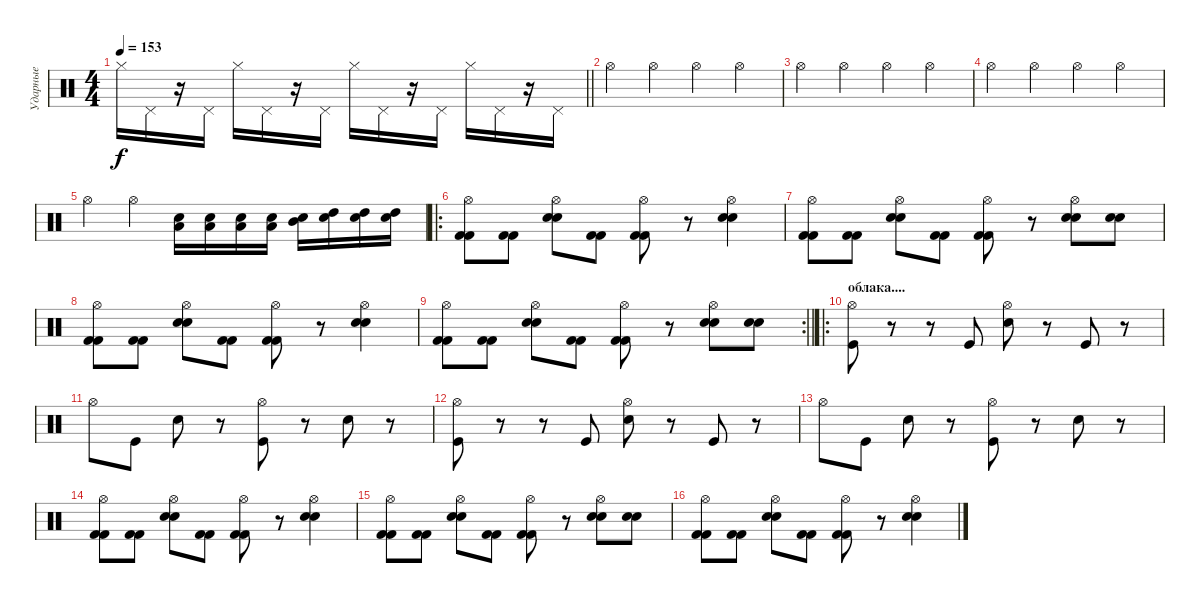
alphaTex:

\track ("Ударные" "Ударные") {instrument percussion}
\staff {score}
\articulation defaults
\ts (4 4)
\tempo 153
\clef neutral
\barLineRight lightlight
\ks c "Hi-Hat (closed)".16{dy f volume 13} "Pedal Hi-Hat (hit)".16
r.16 "Pedal Hi-Hat (hit)".16 "Hi-Hat (closed)".16 "Pedal Hi-Hat (hit)".16 r.16 "Pedal Hi-Hat (hit)".16 "Hi-Hat (closed)".16 "Pedal Hi-Hat (hit)".16 r.16 "Pedal Hi-Hat (hit)".16 "Hi-Hat (closed)".16 "Pedal Hi-Hat (hit)".16 r.16 "Pedal Hi-Hat (hit)".16 |
"Hi-Hat (open)".4{volume 9} "Hi-Hat (open)".4{volume 16} "Hi-Hat (open)".4 "Hi-Hat (open)".4 |
"Hi-Hat (open)".4 "Hi-Hat (open)".4 "Hi-Hat (open)".4 "Hi-Hat (open)".4 |
"Hi-Hat (open)".4 "Hi-Hat (open)".4 "Hi-Hat (open)".4 "Hi-Hat (open)".4 |
"Hi-Hat (open)".4 "Hi-Hat (open)".4 ("Low Tom (hit)" "Snare (hit) 2").16 ("Low Tom (hit)" "Snare (hit) 2").16 ("Low Tom (hit)" "Snare (hit) 2").16 ("Low Tom (hit)" "Snare (hit) 2").16 ("Mid Tom (hit)" "Snare (hit) 2").16 ("High Tom (hit)" "Snare (hit) 2").16 ("High Tom (hit)" "Snare (hit) 2").16 ("High Tom (hit)" "Snare (hit) 2").16 |
\ro
("Kick (hit) 2" "Kick (hit) 2" "Hi-Hat (open)").8 ("Kick (hit) 2" "Kick (hit) 2").8 ("Electric Snare (hit)" "Electric Snare (hit)" "Hi-Hat (open)").8 ("Kick (hit) 2" "Kick (hit) 2").8 ("Kick (hit) 2" "Kick (hit) 2" "Hi-Hat (open)").8 r.8 ("Electric Snare (hit)" "Electric Snare (hit)" "Hi-Hat (open)").4 |
("Kick (hit) 2" "Kick (hit) 2" "Hi-Hat (open)").8 ("Kick (hit) 2" "Kick (hit) 2").8 ("Electric Snare (hit)" "Electric Snare (hit)" "Hi-Hat (open)").8 ("Kick (hit) 2" "Kick (hit) 2").8 ("Kick (hit) 2" "Kick (hit) 2" "Hi-Hat (open)").8 r.8 ("Electric Snare (hit)" "Electric Snare (hit)" "Hi-Hat (open)").8 ("Electric Snare (hit)" "Electric Snare (hit)").8 |
("Kick (hit) 2" "Kick (hit) 2" "Hi-Hat (open)").8 ("Kick (hit) 2" "Kick (hit) 2").8 ("Electric Snare (hit)" "Electric Snare (hit)" "Hi-Hat (open)").8 ("Kick (hit) 2" "Kick (hit) 2").8 ("Kick (hit) 2" "Kick (hit) 2" "Hi-Hat (open)").8 r.8 ("Electric Snare (hit)" "Electric Snare (hit)" "Hi-Hat (open)").4 |
\rc 2
\barLineRight lightlight
("Kick (hit) 2" "Kick (hit) 2" "Hi-Hat (open)").8 ("Kick (hit) 2" "Kick (hit) 2").8 ("Electric Snare (hit)" "Electric Snare (hit)" "Hi-Hat (open)").8 ("Kick (hit) 2" "Kick (hit) 2").8 ("Kick (hit) 2" "Kick (hit) 2" "Hi-Hat (open)").8 r.8 ("Electric Snare (hit)" "Electric Snare (hit)" "Hi-Hat (open)").8 ("Electric Snare (hit)" "Electric Snare (hit)").8 |
\ro
\section ("" "облака....")
("Hi-Hat (open)" "Kick (hit)").8 r.8 r.8 "Kick (hit)".8 ("Hi-Hat (open)" "Electric Snare (hit)").8 r.8 "Kick (hit)".8 r.8 |
"Hi-Hat (open)".8 "Kick (hit)".8 "Electric Snare (hit)".8 r.8 ("Hi-Hat (open)" "Kick (hit)").8 r.8 "Electric Snare (hit)".8 r.8 |
("Hi-Hat (open)" "Kick (hit)").8 r.8 r.8 "Kick (hit)".8 ("Hi-Hat (open)" "Electric Snare (hit)").8 r.8 "Kick (hit)".8 r.8 |
"Hi-Hat (open)".8 "Kick (hit)".8 "Electric Snare (hit)".8 r.8 ("Hi-Hat (open)" "Kick (hit)").8 r.8 "Electric Snare (hit)".8 r.8 |
("Kick (hit) 2" "Kick (hit) 2" "Hi-Hat (open)").8 ("Kick (hit) 2" "Kick (hit) 2").8 ("Electric Snare (hit)" "Electric Snare (hit)" "Hi-Hat (open)").8 ("Kick (hit) 2" "Kick (hit) 2").8 ("Kick (hit) 2" "Kick (hit) 2" "Hi-Hat (open)").8 r.8 ("Electric Snare (hit)" "Electric Snare (hit)" "Hi-Hat (open)").4 |
("Kick (hit) 2" "Kick (hit) 2" "Hi-Hat (open)").8 ("Kick (hit) 2" "Kick (hit) 2").8 ("Electric Snare (hit)" "Electric Snare (hit)" "Hi-Hat (open)").8 ("Kick (hit) 2" "Kick (hit) 2").8 ("Kick (hit) 2" "Kick (hit) 2" "Hi-Hat (open)").8 r.8 ("Electric Snare (hit)" "Electric Snare (hit)" "Hi-Hat (open)").8 ("Electric Snare (hit)" "Electric Snare (hit)").8 |
("Kick (hit) 2" "Kick (hit) 2" "Hi-Hat (open)").8 ("Kick (hit) 2" "Kick (hit) 2").8 ("Electric Snare (hit)" "Electric Snare (hit)" "Hi-Hat (open)").8 ("Kick (hit) 2" "Kick (hit) 2").8 ("Kick (hit) 2" "Kick (hit) 2" "Hi-Hat (open)").8 r.8 ("Electric Snare (hit)" "Electric Snare (hit)" "Hi-Hat (open)").4
